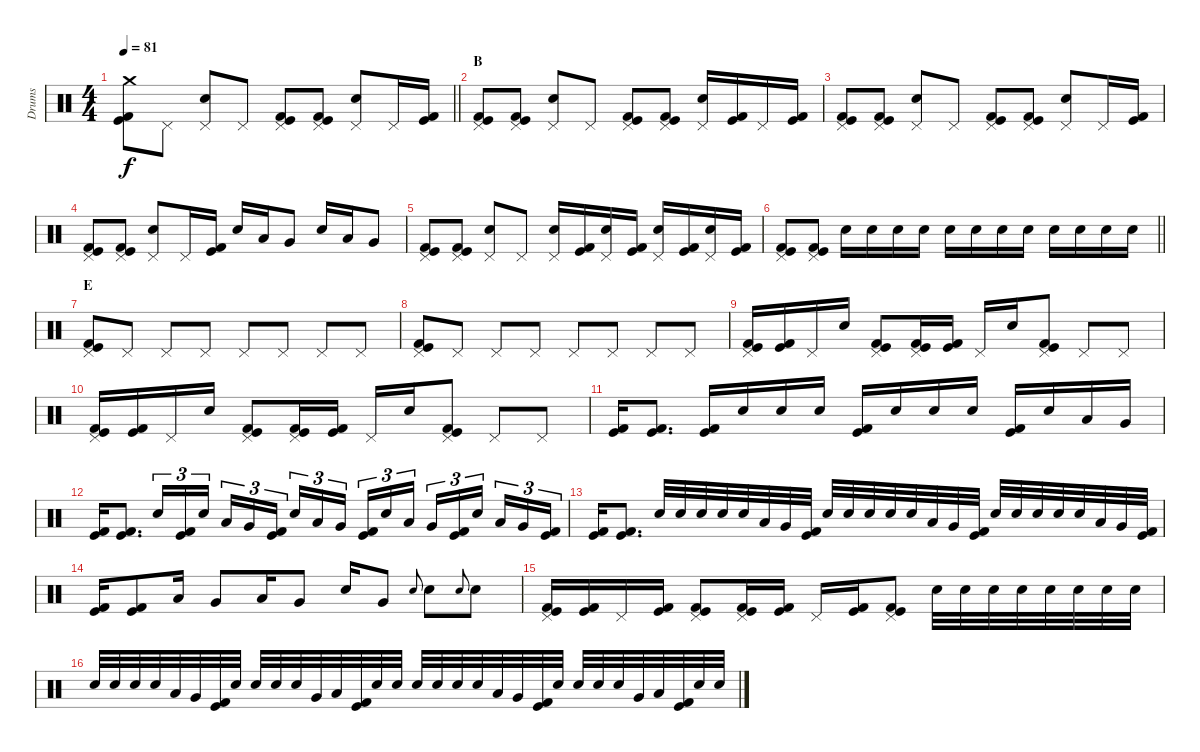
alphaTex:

\track ("Drums" "Drums") {instrument percussion}
\staff {score}
\articulation defaults
\ts (4 4)
\tempo 81
\clef neutral
\barLineRight lightlight
\ks c
("Crash medium (hit)" "Kick (hit)" "Kick (hit) 2").8{dy f} "Pedal Hi-Hat (hit)".8 ("Pedal Hi-Hat (hit)" "Electric Snare (hit)").8 "Pedal Hi-Hat (hit)".8 ("Pedal Hi-Hat (hit)" "Kick (hit)" "Kick (hit) 2").8 ("Pedal Hi-Hat (hit)" "Kick (hit)" "Kick (hit) 2").8 ("Pedal Hi-Hat (hit)" "Electric Snare (hit)").8 "Pedal Hi-Hat (hit)".16 ("Kick (hit)" "Kick (hit) 2").16 |
\section ("" "B")
("Pedal Hi-Hat (hit)" "Kick (hit)" "Kick (hit) 2").8 ("Pedal Hi-Hat (hit)" "Kick (hit)" "Kick (hit) 2").8 ("Pedal Hi-Hat (hit)" "Electric Snare (hit)").8 "Pedal Hi-Hat (hit)".8 ("Pedal Hi-Hat (hit)" "Kick (hit)" "Kick (hit) 2").8 ("Pedal Hi-Hat (hit)" "Kick (hit)" "Kick (hit) 2").8 ("Pedal Hi-Hat (hit)" "Electric Snare (hit)").16 ("Kick (hit)" "Kick (hit) 2").16 "Pedal Hi-Hat (hit)".16 ("Kick (hit)" "Kick (hit) 2").16 |
("Pedal Hi-Hat (hit)" "Kick (hit)" "Kick (hit) 2").8 ("Pedal Hi-Hat (hit)" "Kick (hit)" "Kick (hit) 2").8 ("Pedal Hi-Hat (hit)" "Electric Snare (hit)").8 "Pedal Hi-Hat (hit)".8 ("Pedal Hi-Hat (hit)" "Kick (hit)" "Kick (hit) 2").8 ("Pedal Hi-Hat (hit)" "Kick (hit)" "Kick (hit) 2").8 ("Pedal Hi-Hat (hit)" "Electric Snare (hit)").8 "Pedal Hi-Hat (hit)".16 ("Kick (hit)" "Kick (hit) 2").16 |
("Pedal Hi-Hat (hit)" "Kick (hit)" "Kick (hit) 2").8 ("Pedal Hi-Hat (hit)" "Kick (hit)" "Kick (hit) 2").8 ("Pedal Hi-Hat (hit)" "Electric Snare (hit)").8 "Pedal Hi-Hat (hit)".16 ("Kick (hit)" "Kick (hit) 2").16 "Electric Snare (hit)".16 "Low Tom (hit)".16 "Very Low Tom (hit)".8 "Electric Snare (hit)".16 "Low Tom (hit)".16 "Very Low Tom (hit)".8 |
("Pedal Hi-Hat (hit)" "Kick (hit)" "Kick (hit) 2").8 ("Pedal Hi-Hat (hit)" "Kick (hit)" "Kick (hit) 2").8 ("Pedal Hi-Hat (hit)" "Electric Snare (hit)").8 "Pedal Hi-Hat (hit)".8 ("Pedal Hi-Hat (hit)" "Electric Snare (hit)").16 ("Kick (hit)" "Kick (hit) 2").16 ("Pedal Hi-Hat (hit)" "Electric Snare (hit)").16 ("Kick (hit)" "Kick (hit) 2").16 ("Pedal Hi-Hat (hit)" "Electric Snare (hit)").16 ("Kick (hit)" "Kick (hit) 2").16 ("Pedal Hi-Hat (hit)" "Electric Snare (hit)").16 ("Kick (hit)" "Kick (hit) 2").16 |
\barLineRight lightlight
("Pedal Hi-Hat (hit)" "Kick (hit)" "Kick (hit) 2").8 ("Pedal Hi-Hat (hit)" "Kick (hit)" "Kick (hit) 2").8 "Electric Snare (hit)".16 "Electric Snare (hit)".16 "Electric Snare (hit)".16 "Electric Snare (hit)".16 "Electric Snare (hit)".16 "Electric Snare (hit)".16 "Electric Snare (hit)".16 "Electric Snare (hit)".16 "Electric Snare (hit)".16 "Electric Snare (hit)".16 "Electric Snare (hit)".16 "Electric Snare (hit)".16 |
\section ("" "E")
("Pedal Hi-Hat (hit)" "Kick (hit)" "Kick (hit) 2").8 "Pedal Hi-Hat (hit)".8 "Pedal Hi-Hat (hit)".8 "Pedal Hi-Hat (hit)".8 "Pedal Hi-Hat (hit)".8 "Pedal Hi-Hat (hit)".8 "Pedal Hi-Hat (hit)".8 "Pedal Hi-Hat (hit)".8 |
("Pedal Hi-Hat (hit)" "Kick (hit)" "Kick (hit) 2").8 "Pedal Hi-Hat (hit)".8 "Pedal Hi-Hat (hit)".8 "Pedal Hi-Hat (hit)".8 "Pedal Hi-Hat (hit)".8 "Pedal Hi-Hat (hit)".8 "Pedal Hi-Hat (hit)".8 "Pedal Hi-Hat (hit)".8 |
("Pedal Hi-Hat (hit)" "Kick (hit)" "Kick (hit) 2").16 ("Kick (hit)" "Kick (hit) 2").16 "Pedal Hi-Hat (hit)".16 "Electric Snare (hit)".16 ("Pedal Hi-Hat (hit)" "Kick (hit)" "Kick (hit) 2").8 ("Pedal Hi-Hat (hit)" "Kick (hit)" "Kick (hit) 2").16 ("Kick (hit)" "Kick (hit) 2").16 "Pedal Hi-Hat (hit)".16 "Electric Snare (hit)".16 ("Pedal Hi-Hat (hit)" "Kick (hit)" "Kick (hit) 2").8 "Pedal Hi-Hat (hit)".8 "Pedal Hi-Hat (hit)".8 |
("Pedal Hi-Hat (hit)" "Kick (hit)" "Kick (hit) 2").16 ("Kick (hit)" "Kick (hit) 2").16 "Pedal Hi-Hat (hit)".16 "Electric Snare (hit)".16 ("Pedal Hi-Hat (hit)" "Kick (hit)" "Kick (hit) 2").8 ("Pedal Hi-Hat (hit)" "Kick (hit)" "Kick (hit) 2").16 ("Kick (hit)" "Kick (hit) 2").16 "Pedal Hi-Hat (hit)".16 "Electric Snare (hit)".16 ("Pedal Hi-Hat (hit)" "Kick (hit)" "Kick (hit) 2").8 "Pedal Hi-Hat (hit)".8 "Pedal Hi-Hat (hit)".8 |
("Kick (hit)" "Kick (hit) 2").16 ("Kick (hit)" "Kick (hit) 2").8{d} ("Kick (hit)" "Kick (hit) 2").16 "Electric Snare (hit)".16 "Electric Snare (hit)".16 "Electric Snare (hit)".16 ("Kick (hit)" "Kick (hit) 2").16 "Electric Snare (hit)".16 "Electric Snare (hit)".16 "Electric Snare (hit)".16 ("Kick (hit)" "Kick (hit) 2").16 "Electric Snare (hit)".16 "Low Tom (hit)".16 "Very Low Tom (hit)".16 |
("Kick (hit)" "Kick (hit) 2").16 ("Kick (hit)" "Kick (hit) 2").8{d} "Electric Snare (hit)".16{tu (3 2)} ("Kick (hit)" "Kick (hit) 2").16{tu (3 2)} "Electric Snare (hit)".16{tu (3 2) beam splitsecondary} "Low Tom (hit)".16{tu (3 2)} "Very Low Tom (hit)".16{tu (3 2)} ("Kick (hit)" "Kick (hit) 2").16{tu (3 2)} "Electric Snare (hit)".16{tu (3 2)} "Low Tom (hit)".16{tu (3 2)} "Very Low Tom (hit)".16{tu (3 2) beam splitsecondary} ("Kick (hit)" "Kick (hit) 2").16{tu (3 2)} "Electric Snare (hit)".16{tu (3 2)} "Low Tom (hit)".16{tu (3 2)} "Very Low Tom (hit)".16{tu (3 2)} ("Kick (hit)" "Kick (hit) 2").16{tu (3 2)} "Electric Snare (hit)".16{tu (3 2) beam splitsecondary} "Low Tom (hit)".16{tu (3 2)} "Very Low Tom (hit)".16{tu (3 2)} ("Kick (hit)" "Kick (hit) 2").16{tu (3 2)} |
("Kick (hit)" "Kick (hit) 2").16 ("Kick (hit)" "Kick (hit) 2").8{d} "Electric Snare (hit)".32 "Electric Snare (hit)".32 "Electric Snare (hit)".32 "Electric Snare (hit)".32 "Electric Snare (hit)".32 "Low Tom (hit)".32 "Very Low Tom (hit)".32 ("Kick (hit)" "Kick (hit) 2").32 "Electric Snare (hit)".32 "Electric Snare (hit)".32 "Electric Snare (hit)".32 "Electric Snare (hit)".32 "Electric Snare (hit)".32 "Low Tom (hit)".32 "Very Low Tom (hit)".32 ("Kick (hit)" "Kick (hit) 2").32 "Electric Snare (hit)".32 "Electric Snare (hit)".32 "Electric Snare (hit)".32 "Electric Snare (hit)".32 "Electric Snare (hit)".32 "Low Tom (hit)".32 "Very Low Tom (hit)".32 ("Kick (hit)" "Kick (hit) 2").32 |
("Kick (hit)" "Kick (hit) 2").16 ("Kick (hit)" "Kick (hit) 2").8 "Low Tom (hit)".16 "Very Low Tom (hit)".8 "Low Tom (hit)".16 "Very Low Tom (hit)".8 "Electric Snare (hit)".16 "Very Low Tom (hit)".8 "Electric Snare (hit)".8{gr onbeat} "Electric Snare (hit)".8 "Electric Snare (hit)".8{gr onbeat} "Electric Snare (hit)".8 |
("Pedal Hi-Hat (hit)" "Kick (hit)" "Kick (hit) 2").16 ("Kick (hit)" "Kick (hit) 2").16 "Pedal Hi-Hat (hit)".16 ("Kick (hit)" "Kick (hit) 2").16 ("Pedal Hi-Hat (hit)" "Kick (hit)" "Kick (hit) 2").8 ("Pedal Hi-Hat (hit)" "Kick (hit)" "Kick (hit) 2").16 ("Kick (hit)" "Kick (hit) 2").16 "Pedal Hi-Hat (hit)".16 ("Kick (hit)" "Kick (hit) 2").16 ("Pedal Hi-Hat (hit)" "Kick (hit)" "Kick (hit) 2").8 "Electric Snare (hit)".32 "Electric Snare (hit)".32 "Electric Snare (hit)".32 "Electric Snare (hit)".32 "Electric Snare (hit)".32 "Electric Snare (hit)".32 "Electric Snare (hit)".32 "Electric Snare (hit)".32 |
"Electric Snare (hit)".32 "Electric Snare (hit)".32 "Electric Snare (hit)".32 "Electric Snare (hit)".32 "Low Tom (hit)".32 "Very Low Tom (hit)".32 ("Kick (hit)" "Kick (hit) 2").32 "Electric Snare (hit)".32 "Electric Snare (hit)".32 "Electric Snare (hit)".32 "Electric Snare (hit)".32 "Very Low Tom (hit)".32 "Low Floor Tom (hit)".32 ("Kick (hit)" "Kick (hit) 2").32 "Electric Snare (hit)".32 "Electric Snare (hit)".32 "Electric Snare (hit)".32 "Electric Snare (hit)".32 "Electric Snare (hit)".32 "Electric Snare (hit)".32 "Low Tom (hit)".32 "Very Low Tom (hit)".32 ("Kick (hit)" "Kick (hit) 2").32 "Electric Snare (hit)".32 "Electric Snare (hit)".32 "Electric Snare (hit)".32 "Electric Snare (hit)".32 "Very Low Tom (hit)".32 "Low Floor Tom (hit)".32 ("Kick (hit)" "Kick (hit) 2").32 "Electric Snare (hit)".32 "Electric Snare (hit)".32
